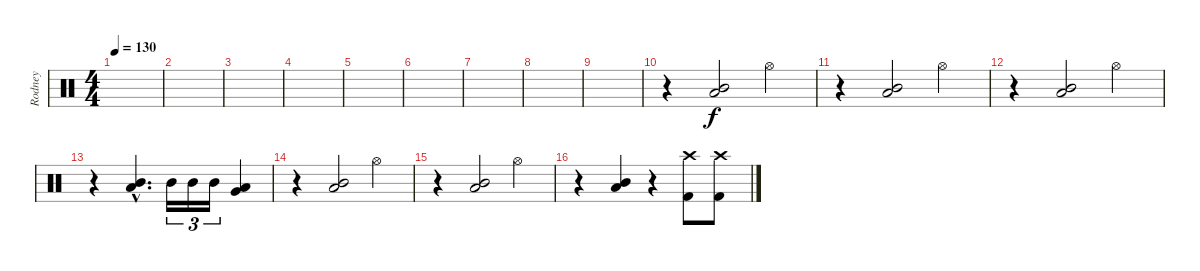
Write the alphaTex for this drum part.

\track ("Rodney" "Rodney") {instrument percussion}
\staff {score}
\articulation defaults
\ts (4 4)
\tempo 130
\clef neutral
\ks c
|
|
|
|
|
|
|
|
|
r.4 ("Mid Tom (hit)" "Low Tom (hit)").2 "Hi-Hat (open)".4 |
r.4 ("Mid Tom (hit)" "Low Tom (hit)").2 "Hi-Hat (open)".4 |
r.4 ("Mid Tom (hit)" "Low Tom (hit)").2 "Hi-Hat (open)".4 |
r.4 ("Mid Tom (hit)"{hac} "Low Tom (hit)"{hac}).4{d} "Mid Tom (hit)".16{tu (3 2)} "Mid Tom (hit)".16{tu (3 2)} "Mid Tom (hit)".16{tu (3 2)} ("Low Tom (hit)" "Very Low Tom (hit)").4 |
r.4 ("Mid Tom (hit)" "Low Tom (hit)").2 "Hi-Hat (open)".4 |
r.4 ("Mid Tom (hit)" "Low Tom (hit)").2 "Hi-Hat (open)".4 |
r.4 ("Mid Tom (hit)" "Low Tom (hit)").4 r.4 ("Crash high (hit)" "Kick (hit) 2").8 ("Crash high (hit)" "Kick (hit) 2").8
